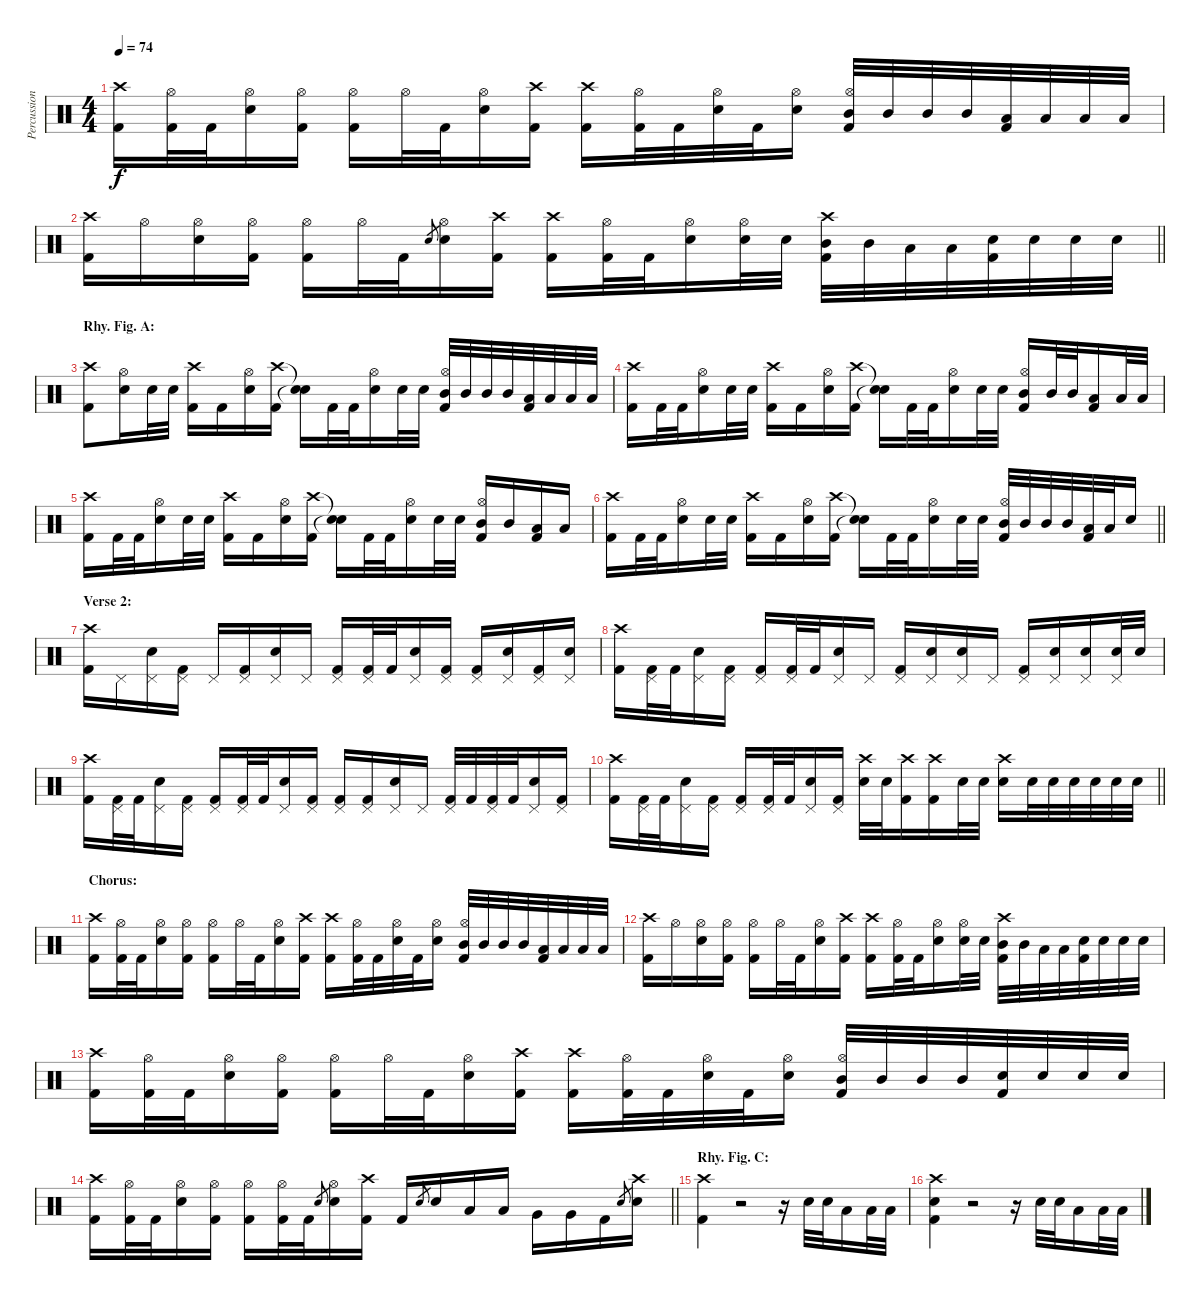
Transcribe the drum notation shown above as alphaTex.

\track ("Percussion" "Percussion") {instrument percussion}
\staff {score}
\articulation defaults
\ts (4 4)
\tempo 74
\clef neutral
\ks c
("Crash high (hit)" "Kick (hit) 2").16{dy f} ("Hi-Hat (open)" "Kick (hit) 2").32 "Kick (hit) 2".32 ("Hi-Hat (open)" "Electric Snare (hit)").16 ("Hi-Hat (open)" "Kick (hit) 2").16 ("Hi-Hat (open)" "Kick (hit) 2").16 "Hi-Hat (open)".32 "Kick (hit) 2".32 ("Hi-Hat (open)" "Electric Snare (hit)").16 ("Crash high (hit)" "Kick (hit) 2").16 ("Crash high (hit)" "Kick (hit) 2").16 ("Hi-Hat (open)" "Kick (hit) 2").32 "Kick (hit) 2".32 ("Hi-Hat (open)" "Electric Snare (hit)").32 "Kick (hit) 2".32 ("Hi-Hat (open)" "Electric Snare (hit)").16 ("Hi-Hat (open)" "Mid Tom (hit)" "Kick (hit) 2").32 "Mid Tom (hit)".32 "Mid Tom (hit)".32 "Mid Tom (hit)".32 ("Low Tom (hit)" "Kick (hit) 2").32 "Low Tom (hit)".32 "Low Tom (hit)".32 "Low Tom (hit)".32 |
\barLineRight lightlight
("Crash high (hit)" "Kick (hit) 2").16 "Hi-Hat (open)".16 ("Hi-Hat (open)" "Electric Snare (hit)").16 ("Hi-Hat (open)" "Kick (hit) 2").16 ("Hi-Hat (open)" "Kick (hit) 2").16 "Hi-Hat (open)".32 "Kick (hit) 2".32 "Electric Snare (hit)".8{gr} ("Hi-Hat (open)" "Electric Snare (hit)").16 ("Crash high (hit)" "Kick (hit) 2").16 ("Crash high (hit)" "Kick (hit) 2").16 ("Hi-Hat (open)" "Kick (hit) 2").32 "Kick (hit) 2".32 ("Hi-Hat (open)" "Electric Snare (hit)").16 ("Hi-Hat (open)" "Electric Snare (hit)").32 "Electric Snare (hit)".32 ("Crash high (hit)" "Mid Tom (hit)" "Kick (hit) 2").32 "Mid Tom (hit)".32 "Low Tom (hit)".32 "Low Tom (hit)".32 ("Electric Snare (hit)" "Kick (hit) 2").32 "Electric Snare (hit)".32 "Electric Snare (hit)".32 "Electric Snare (hit)".32 |
\section ("" "Rhy. Fig. A:")
("Crash high (hit)" "Kick (hit) 2").8 ("Hi-Hat (open)" "Electric Snare (hit)").16 "Electric Snare (hit)".32 "Electric Snare (hit)".32 ("Crash high (hit)" "Kick (hit) 2").16 "Kick (hit) 2".16 ("Hi-Hat (open)" "Electric Snare (hit)").16 ("Crash high (hit)" "Kick (hit) 2").16 ("Snare (hit)"{t} "Snare (hit)"{t}).16 "Kick (hit) 2".32 "Kick (hit) 2".32 ("Hi-Hat (open)" "Electric Snare (hit)").16 "Electric Snare (hit)".32 "Electric Snare (hit)".32 ("Hi-Hat (open)" "Mid Tom (hit)" "Kick (hit) 2").32 "Mid Tom (hit)".32 "Mid Tom (hit)".32 "Mid Tom (hit)".32 ("Low Tom (hit)" "Kick (hit) 2").32 "Low Tom (hit)".32 "Low Tom (hit)".32 "Low Tom (hit)".32 |
("Crash high (hit)" "Kick (hit) 2").16 "Kick (hit) 2".32 "Kick (hit) 2".32 ("Hi-Hat (open)" "Electric Snare (hit)").16 "Electric Snare (hit)".32 "Electric Snare (hit)".32 ("Crash high (hit)" "Kick (hit) 2").16 "Kick (hit) 2".16 ("Hi-Hat (open)" "Electric Snare (hit)").16 ("Crash high (hit)" "Kick (hit) 2").16 ("Snare (hit)"{t} "Snare (hit)"{t}).16 "Kick (hit) 2".32 "Kick (hit) 2".32 ("Hi-Hat (open)" "Electric Snare (hit)").16 "Electric Snare (hit)".32 "Electric Snare (hit)".32 ("Hi-Hat (open)" "Mid Tom (hit)" "Kick (hit) 2").16 "Mid Tom (hit)".32 "Mid Tom (hit)".32 ("Low Tom (hit)" "Kick (hit) 2").16 "Low Tom (hit)".32 "Low Tom (hit)".32 |
("Crash high (hit)" "Kick (hit) 2").16 "Kick (hit) 2".32 "Kick (hit) 2".32 ("Hi-Hat (open)" "Electric Snare (hit)").16 "Electric Snare (hit)".32 "Electric Snare (hit)".32 ("Crash high (hit)" "Kick (hit) 2").16 "Kick (hit) 2".16 ("Hi-Hat (open)" "Electric Snare (hit)").16 ("Crash high (hit)" "Kick (hit) 2").16 ("Snare (hit)"{t} "Snare (hit)"{t}).16 "Kick (hit) 2".32 "Kick (hit) 2".32 ("Hi-Hat (open)" "Electric Snare (hit)").16 "Electric Snare (hit)".32 "Electric Snare (hit)".32 ("Hi-Hat (open)" "Mid Tom (hit)" "Kick (hit) 2").16 "Mid Tom (hit)".16 ("Low Tom (hit)" "Kick (hit) 2").16 "Low Tom (hit)".16 |
\barLineRight lightlight
("Crash high (hit)" "Kick (hit) 2").16 "Kick (hit) 2".32 "Kick (hit) 2".32 ("Hi-Hat (open)" "Electric Snare (hit)").16 "Electric Snare (hit)".32 "Electric Snare (hit)".32 ("Crash high (hit)" "Kick (hit) 2").16 "Kick (hit) 2".16 ("Hi-Hat (open)" "Electric Snare (hit)").16 ("Crash high (hit)" "Kick (hit) 2").16 ("Snare (hit)"{t} "Snare (hit)"{t}).16 "Kick (hit) 2".32 "Kick (hit) 2".32 ("Hi-Hat (open)" "Electric Snare (hit)").16 "Electric Snare (hit)".32 "Electric Snare (hit)".32 ("Hi-Hat (open)" "Mid Tom (hit)" "Kick (hit) 2").32 "Mid Tom (hit)".32 "Mid Tom (hit)".32 "Mid Tom (hit)".32 ("Low Tom (hit)" "Kick (hit) 2").32 "Low Tom (hit)".32 "Electric Snare (hit)".16 |
\section ("" "Verse 2:")
("Crash high (hit)" "Kick (hit) 2").16 "Pedal Hi-Hat (hit)".16 ("Pedal Hi-Hat (hit)" "Electric Snare (hit)").16 ("Pedal Hi-Hat (hit)" "Kick (hit) 2").16 "Pedal Hi-Hat (hit)".16 ("Pedal Hi-Hat (hit)" "Kick (hit) 2").16 ("Pedal Hi-Hat (hit)" "Electric Snare (hit)").16 "Pedal Hi-Hat (hit)".16 ("Pedal Hi-Hat (hit)" "Kick (hit) 2").16 ("Pedal Hi-Hat (hit)" "Kick (hit) 2").32 "Kick (hit) 2".32 ("Pedal Hi-Hat (hit)" "Electric Snare (hit)").16 ("Pedal Hi-Hat (hit)" "Kick (hit) 2").16 ("Pedal Hi-Hat (hit)" "Kick (hit) 2").16 ("Pedal Hi-Hat (hit)" "Electric Snare (hit)").16 ("Pedal Hi-Hat (hit)" "Kick (hit) 2").16 ("Pedal Hi-Hat (hit)" "Electric Snare (hit)").16 |
("Crash high (hit)" "Kick (hit) 2").16 ("Pedal Hi-Hat (hit)" "Kick (hit) 2").32 "Kick (hit) 2".32 ("Pedal Hi-Hat (hit)" "Electric Snare (hit)").16 ("Pedal Hi-Hat (hit)" "Kick (hit) 2").16 ("Pedal Hi-Hat (hit)" "Kick (hit) 2").16 ("Pedal Hi-Hat (hit)" "Kick (hit) 2").32 "Kick (hit) 2".32 ("Pedal Hi-Hat (hit)" "Electric Snare (hit)").16 "Pedal Hi-Hat (hit)".16 ("Pedal Hi-Hat (hit)" "Kick (hit) 2").16 ("Pedal Hi-Hat (hit)" "Electric Snare (hit)").16 ("Pedal Hi-Hat (hit)" "Electric Snare (hit)").16 "Pedal Hi-Hat (hit)".16 ("Pedal Hi-Hat (hit)" "Kick (hit) 2").16 ("Pedal Hi-Hat (hit)" "Electric Snare (hit)").16 ("Pedal Hi-Hat (hit)" "Electric Snare (hit)").16 ("Pedal Hi-Hat (hit)" "Electric Snare (hit)").32 "Electric Snare (hit)".32 |
("Crash high (hit)" "Kick (hit) 2").16 ("Pedal Hi-Hat (hit)" "Kick (hit) 2").32 "Kick (hit) 2".32 ("Pedal Hi-Hat (hit)" "Electric Snare (hit)").16 ("Pedal Hi-Hat (hit)" "Kick (hit) 2").16 ("Pedal Hi-Hat (hit)" "Kick (hit) 2").16 ("Pedal Hi-Hat (hit)" "Kick (hit) 2").32 "Kick (hit) 2".32 ("Pedal Hi-Hat (hit)" "Electric Snare (hit)").16 ("Pedal Hi-Hat (hit)" "Kick (hit) 2").16 ("Pedal Hi-Hat (hit)" "Kick (hit) 2").16 ("Pedal Hi-Hat (hit)" "Kick (hit) 2").16 ("Pedal Hi-Hat (hit)" "Electric Snare (hit)").16 "Pedal Hi-Hat (hit)".16 ("Pedal Hi-Hat (hit)" "Kick (hit) 2").32 "Kick (hit) 2".32 ("Pedal Hi-Hat (hit)" "Kick (hit) 2").32 "Kick (hit) 2".32 ("Pedal Hi-Hat (hit)" "Electric Snare (hit)").16 ("Pedal Hi-Hat (hit)" "Kick (hit) 2").16 |
\barLineRight lightlight
("Crash high (hit)" "Kick (hit) 2").16 ("Pedal Hi-Hat (hit)" "Kick (hit) 2").32 "Kick (hit) 2".32 ("Pedal Hi-Hat (hit)" "Electric Snare (hit)").16 ("Pedal Hi-Hat (hit)" "Kick (hit) 2").16 ("Pedal Hi-Hat (hit)" "Kick (hit) 2").16 ("Pedal Hi-Hat (hit)" "Kick (hit) 2").32 "Kick (hit) 2".32 ("Pedal Hi-Hat (hit)" "Electric Snare (hit)").16 ("Pedal Hi-Hat (hit)" "Kick (hit) 2").16 ("Crash high (hit)" "Electric Snare (hit)").32 "Electric Snare (hit)".32 ("Crash high (hit)" "Kick (hit) 2").16 ("Crash high (hit)" "Kick (hit) 2").16 "Electric Snare (hit)".32 "Electric Snare (hit)".32 ("Crash high (hit)" "Electric Snare (hit)").16 "Electric Snare (hit)".32 "Electric Snare (hit)".32 "Electric Snare (hit)".32 "Electric Snare (hit)".32 "Electric Snare (hit)".32 "Electric Snare (hit)".32 |
\section ("" "Chorus:")
("Crash high (hit)" "Kick (hit) 2").16 ("Hi-Hat (open)" "Kick (hit) 2").32 "Kick (hit) 2".32 ("Hi-Hat (open)" "Electric Snare (hit)").16 ("Hi-Hat (open)" "Kick (hit) 2").16 ("Hi-Hat (open)" "Kick (hit) 2").16 "Hi-Hat (open)".32 "Kick (hit) 2".32 ("Hi-Hat (open)" "Electric Snare (hit)").16 ("Crash high (hit)" "Kick (hit) 2").16 ("Crash high (hit)" "Kick (hit) 2").16 ("Hi-Hat (open)" "Kick (hit) 2").32 "Kick (hit) 2".32 ("Hi-Hat (open)" "Electric Snare (hit)").32 "Kick (hit) 2".32 ("Hi-Hat (open)" "Electric Snare (hit)").16 ("Hi-Hat (open)" "Mid Tom (hit)" "Kick (hit) 2").32 "Mid Tom (hit)".32 "Mid Tom (hit)".32 "Mid Tom (hit)".32 ("Low Tom (hit)" "Kick (hit) 2").32 "Low Tom (hit)".32 "Low Tom (hit)".32 "Low Tom (hit)".32 |
("Crash high (hit)" "Kick (hit) 2").16 "Hi-Hat (open)".16 ("Hi-Hat (open)" "Electric Snare (hit)").16 ("Hi-Hat (open)" "Kick (hit) 2").16 ("Hi-Hat (open)" "Kick (hit) 2").16 "Hi-Hat (open)".32 "Kick (hit) 2".32 ("Hi-Hat (open)" "Electric Snare (hit)").16 ("Crash high (hit)" "Kick (hit) 2").16 ("Crash high (hit)" "Kick (hit) 2").16 ("Hi-Hat (open)" "Kick (hit) 2").32 "Kick (hit) 2".32 ("Hi-Hat (open)" "Electric Snare (hit)").16 ("Hi-Hat (open)" "Electric Snare (hit)").32 "Electric Snare (hit)".32 ("Crash high (hit)" "Mid Tom (hit)" "Kick (hit) 2").32 "Mid Tom (hit)".32 "Low Tom (hit)".32 "Low Tom (hit)".32 ("Electric Snare (hit)" "Kick (hit) 2").32 "Electric Snare (hit)".32 "Electric Snare (hit)".32 "Electric Snare (hit)".32 |
("Crash high (hit)" "Kick (hit) 2").16 ("Hi-Hat (open)" "Kick (hit) 2").32 "Kick (hit) 2".32 ("Hi-Hat (open)" "Electric Snare (hit)").16 ("Hi-Hat (open)" "Kick (hit) 2").16 ("Hi-Hat (open)" "Kick (hit) 2").16 "Hi-Hat (open)".32 "Kick (hit) 2".32 ("Hi-Hat (open)" "Electric Snare (hit)").16 ("Crash high (hit)" "Kick (hit) 2").16 ("Crash high (hit)" "Kick (hit) 2").16 ("Hi-Hat (open)" "Kick (hit) 2").32 "Kick (hit) 2".32 ("Hi-Hat (open)" "Electric Snare (hit)").32 "Kick (hit) 2".32 ("Hi-Hat (open)" "Electric Snare (hit)").16 ("Hi-Hat (open)" "Mid Tom (hit)" "Kick (hit) 2").32 "Mid Tom (hit)".32 "Mid Tom (hit)".32 "Mid Tom (hit)".32 ("Electric Snare (hit)" "Kick (hit) 2").32 "Electric Snare (hit)".32 "Electric Snare (hit)".32 "Electric Snare (hit)".32 |
\barLineRight lightlight
("Crash high (hit)" "Kick (hit) 2").16 ("Hi-Hat (open)" "Kick (hit) 2").32 "Kick (hit) 2".32 ("Hi-Hat (open)" "Electric Snare (hit)").16 ("Hi-Hat (open)" "Kick (hit) 2").16 ("Hi-Hat (open)" "Kick (hit) 2").16 ("Hi-Hat (open)" "Kick (hit) 2").32 "Kick (hit) 2".32 "Electric Snare (hit)".8{gr} ("Hi-Hat (open)" "Electric Snare (hit)").16 ("Crash high (hit)" "Kick (hit) 2").16 "Kick (hit) 2".16 "Electric Snare (hit)".8{gr} "Electric Snare (hit)".16 "Low Tom (hit)".16 "Low Tom (hit)".16 "Very Low Tom (hit)".16 "Very Low Tom (hit)".16 "Kick (hit) 2".16 "Electric Snare (hit)".8{gr} ("Crash high (hit)" "Electric Snare (hit)").16 |
\section ("" "Rhy. Fig. C:")
("Crash high (hit)" "Kick (hit) 2").4 r.2 r.16 "Electric Snare (hit)".32 "Electric Snare (hit)".32 "Low Tom (hit)".16 "Low Tom (hit)".32 "Low Tom (hit)".32 |
("Crash high (hit)" "Electric Snare (hit)" "Kick (hit) 2").4 r.2 r.16 "Electric Snare (hit)".32 "Electric Snare (hit)".32 "Low Tom (hit)".16 "Low Tom (hit)".32 "Low Tom (hit)".32
